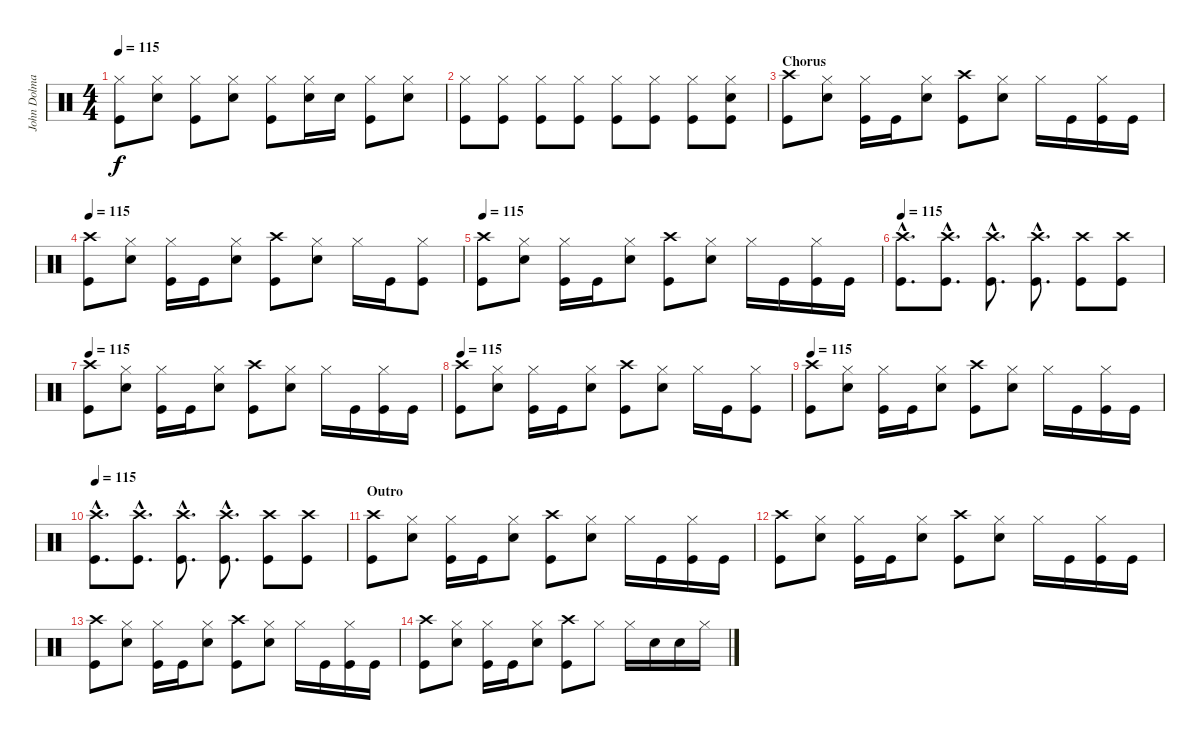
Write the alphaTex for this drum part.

\track ("John Dolmayan " "John Dolma") {instrument percussion}
\staff {score}
\articulation defaults
\ts (4 4)
\tempo 115
\clef neutral
\ks c
("Hi-Hat (closed)" "Kick (hit)").8{dy f} ("Hi-Hat (closed)" "Snare (hit) 2").8 ("Hi-Hat (closed)" "Kick (hit)").8 ("Hi-Hat (closed)" "Snare (hit) 2").8 ("Hi-Hat (closed)" "Kick (hit)").8 ("Hi-Hat (closed)" "Snare (hit) 2").16 "Snare (hit) 2".16 ("Hi-Hat (closed)" "Kick (hit)").8 ("Hi-Hat (closed)" "Snare (hit) 2").8 |
("Hi-Hat (closed)" "Kick (hit)").8 ("Hi-Hat (closed)" "Kick (hit)").8 ("Hi-Hat (closed)" "Kick (hit)").8 ("Hi-Hat (closed)" "Kick (hit)").8 ("Hi-Hat (closed)" "Kick (hit)").8 ("Hi-Hat (closed)" "Kick (hit)").8 ("Hi-Hat (closed)" "Kick (hit)").8 ("Hi-Hat (closed)" "Snare (hit) 2" "Kick (hit)").8 |
\section ("" "Chorus")
("Crash high (hit)" "Kick (hit)").8 ("Hi-Hat (closed)" "Snare (hit) 2").8 ("Hi-Hat (closed)" "Kick (hit)").16 "Kick (hit)".16 ("Hi-Hat (closed)" "Snare (hit) 2").8 ("Crash high (hit)" "Kick (hit)").8 ("Hi-Hat (closed)" "Snare (hit) 2").8 "Hi-Hat (closed)".16 "Kick (hit)".16 ("Hi-Hat (closed)" "Kick (hit)").16 "Kick (hit)".16 |
\tempo 115
("Crash high (hit)" "Kick (hit)").8 ("Hi-Hat (closed)" "Snare (hit) 2").8 ("Hi-Hat (closed)" "Kick (hit)").16 "Kick (hit)".16 ("Hi-Hat (closed)" "Snare (hit) 2").8 ("Crash high (hit)" "Kick (hit)").8 ("Hi-Hat (closed)" "Snare (hit) 2").8 "Hi-Hat (closed)".16 "Kick (hit)".16 ("Hi-Hat (closed)" "Kick (hit)").8 |
\tempo 115
("Crash high (hit)" "Kick (hit)").8 ("Hi-Hat (closed)" "Snare (hit) 2").8 ("Hi-Hat (closed)" "Kick (hit)").16 "Kick (hit)".16 ("Hi-Hat (closed)" "Snare (hit) 2").8 ("Crash high (hit)" "Kick (hit)").8 ("Hi-Hat (closed)" "Snare (hit) 2").8 "Hi-Hat (closed)".16 "Kick (hit)".16 ("Hi-Hat (closed)" "Kick (hit)").16 "Kick (hit)".16 |
\tempo 115
("Crash high (hit)"{hac} "Kick (hit)"{hac}).8{d} ("Crash high (hit)"{hac} "Kick (hit)"{hac}).8{d} ("Crash high (hit)"{hac} "Kick (hit)"{hac}).8{d} ("Crash high (hit)"{hac} "Kick (hit)"{hac}).8{d} ("Crash high (hit)" "Kick (hit)").8 ("Crash high (hit)" "Kick (hit)").8 |
\tempo 115
("Crash high (hit)" "Kick (hit)").8 ("Hi-Hat (closed)" "Snare (hit) 2").8 ("Hi-Hat (closed)" "Kick (hit)").16 "Kick (hit)".16 ("Hi-Hat (closed)" "Snare (hit) 2").8 ("Crash high (hit)" "Kick (hit)").8 ("Hi-Hat (closed)" "Snare (hit) 2").8 "Hi-Hat (closed)".16 "Kick (hit)".16 ("Hi-Hat (closed)" "Kick (hit)").16 "Kick (hit)".16 |
\tempo 115
("Crash high (hit)" "Kick (hit)").8 ("Hi-Hat (closed)" "Snare (hit) 2").8 ("Hi-Hat (closed)" "Kick (hit)").16 "Kick (hit)".16 ("Hi-Hat (closed)" "Snare (hit) 2").8 ("Crash high (hit)" "Kick (hit)").8 ("Hi-Hat (closed)" "Snare (hit) 2").8 "Hi-Hat (closed)".16 "Kick (hit)".16 ("Hi-Hat (closed)" "Kick (hit)").8 |
\tempo 115
("Crash high (hit)" "Kick (hit)").8 ("Hi-Hat (closed)" "Snare (hit) 2").8 ("Hi-Hat (closed)" "Kick (hit)").16 "Kick (hit)".16 ("Hi-Hat (closed)" "Snare (hit) 2").8 ("Crash high (hit)" "Kick (hit)").8 ("Hi-Hat (closed)" "Snare (hit) 2").8 "Hi-Hat (closed)".16 "Kick (hit)".16 ("Hi-Hat (closed)" "Kick (hit)").16 "Kick (hit)".16 |
\tempo 115
("Crash high (hit)"{hac} "Kick (hit)"{hac}).8{d} ("Crash high (hit)"{hac} "Kick (hit)"{hac}).8{d} ("Crash high (hit)"{hac} "Kick (hit)"{hac}).8{d} ("Crash high (hit)"{hac} "Kick (hit)"{hac}).8{d} ("Crash high (hit)" "Kick (hit)").8 ("Crash high (hit)" "Kick (hit)").8 |
\section ("" "Outro")
("Crash high (hit)" "Kick (hit)").8 ("Hi-Hat (closed)" "Snare (hit) 2").8 ("Hi-Hat (closed)" "Kick (hit)").16 "Kick (hit)".16 ("Hi-Hat (closed)" "Snare (hit) 2").8 ("Crash high (hit)" "Kick (hit)").8 ("Hi-Hat (closed)" "Snare (hit) 2").8 "Hi-Hat (closed)".16 "Kick (hit)".16 ("Hi-Hat (closed)" "Kick (hit)").16 "Kick (hit)".16 |
("Crash high (hit)" "Kick (hit)").8 ("Hi-Hat (closed)" "Snare (hit) 2").8 ("Hi-Hat (closed)" "Kick (hit)").16 "Kick (hit)".16 ("Hi-Hat (closed)" "Snare (hit) 2").8 ("Crash high (hit)" "Kick (hit)").8 ("Hi-Hat (closed)" "Snare (hit) 2").8 "Hi-Hat (closed)".16 "Kick (hit)".16 ("Hi-Hat (closed)" "Kick (hit)").16 "Kick (hit)".16 |
("Crash high (hit)" "Kick (hit)").8 ("Hi-Hat (closed)" "Snare (hit) 2").8 ("Hi-Hat (closed)" "Kick (hit)").16 "Kick (hit)".16 ("Hi-Hat (closed)" "Snare (hit) 2").8 ("Crash high (hit)" "Kick (hit)").8 ("Hi-Hat (closed)" "Snare (hit) 2").8 "Hi-Hat (closed)".16 "Kick (hit)".16 ("Hi-Hat (closed)" "Kick (hit)").16 "Kick (hit)".16 |
("Crash high (hit)" "Kick (hit)").8 ("Hi-Hat (closed)" "Snare (hit) 2").8 ("Hi-Hat (closed)" "Kick (hit)").16 "Kick (hit)".16 ("Hi-Hat (closed)" "Snare (hit) 2").8 ("Crash high (hit)" "Kick (hit)").8 "Hi-Hat (closed)".8 "Hi-Hat (closed)".16 "Snare (hit) 2".16 "Snare (hit) 2".16 "Hi-Hat (closed)".16
